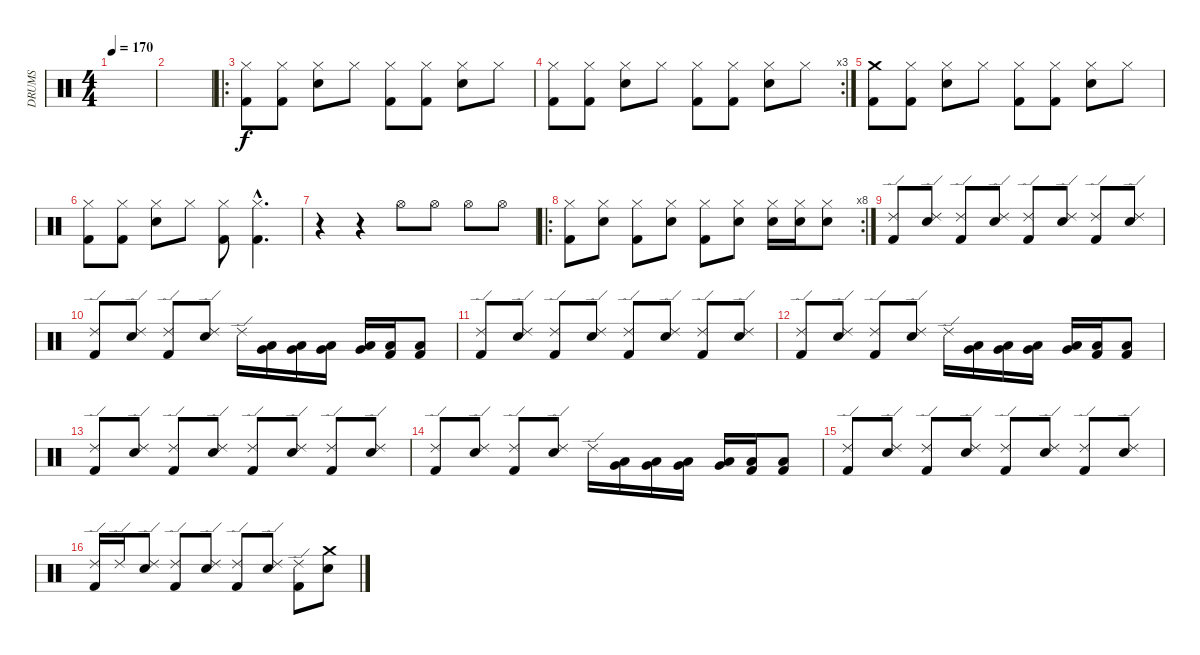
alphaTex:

\track ("DRUMS" "DRUMS") {instrument percussion}
\staff {score}
\articulation defaults
\ts (4 4)
\tempo 170
\clef neutral
\ks c
|
|
\ro
("Kick (hit) 2" "Hi-Hat (closed)").8 ("Kick (hit) 2" "Hi-Hat (closed)").8 ("Snare (hit) 2" "Hi-Hat (closed)").8 "Hi-Hat (closed)".8 ("Kick (hit) 2" "Hi-Hat (closed)").8 ("Kick (hit) 2" "Hi-Hat (closed)").8 ("Snare (hit) 2" "Hi-Hat (closed)").8 "Hi-Hat (closed)".8 |
\rc 3
("Kick (hit) 2" "Hi-Hat (closed)").8 ("Kick (hit) 2" "Hi-Hat (closed)").8 ("Snare (hit) 2" "Hi-Hat (closed)").8 "Hi-Hat (closed)".8 ("Kick (hit) 2" "Hi-Hat (closed)").8 ("Kick (hit) 2" "Hi-Hat (closed)").8 ("Snare (hit) 2" "Hi-Hat (closed)").8 "Hi-Hat (closed)".8 |
("Kick (hit) 2" "Crash medium (hit)").8 ("Kick (hit) 2" "Hi-Hat (closed)").8 ("Snare (hit) 2" "Hi-Hat (closed)").8 "Hi-Hat (closed)".8 ("Kick (hit) 2" "Hi-Hat (closed)").8 ("Kick (hit) 2" "Hi-Hat (closed)").8 ("Snare (hit) 2" "Hi-Hat (closed)").8 "Hi-Hat (closed)".8 |
("Kick (hit) 2" "Hi-Hat (closed)").8 ("Kick (hit) 2" "Hi-Hat (closed)").8 ("Snare (hit) 2" "Hi-Hat (closed)").8 "Hi-Hat (closed)".8 ("Kick (hit) 2" "Hi-Hat (closed)").8 ("Kick (hit) 2"{hac} "Hi-Hat (closed)"{hac}).4{d} |
r.4 r.4 "Hi-Hat (open)".8 "Hi-Hat (open)".8 "Hi-Hat (open)".8 "Hi-Hat (open)".8 |
\ro
\rc 8
("Kick (hit) 2" "Hi-Hat (closed)").8 ("Snare (hit) 2" "Hi-Hat (closed)").8 ("Kick (hit) 2" "Hi-Hat (closed)").8 ("Snare (hit) 2" "Hi-Hat (closed)").8 ("Kick (hit) 2" "Hi-Hat (closed)").8 ("Snare (hit) 2" "Hi-Hat (closed)").8 ("Snare (hit) 2" "Hi-Hat (closed)").16 ("Snare (hit) 2" "Hi-Hat (closed)").16 ("Snare (hit) 2" "Hi-Hat (closed)").8 |
("Kick (hit) 2" "Ride (edge) 2").8 ("Snare (hit) 2" "Ride (edge) 2").8 ("Kick (hit) 2" "Ride (edge) 2").8 ("Snare (hit) 2" "Ride (edge) 2").8 ("Kick (hit) 2" "Ride (edge) 2").8 ("Snare (hit) 2" "Ride (edge) 2").8 ("Kick (hit) 2" "Ride (edge) 2").8 ("Snare (hit) 2" "Ride (edge) 2").8 |
("Kick (hit) 2" "Ride (edge) 2").8 ("Snare (hit) 2" "Ride (edge) 2").8 ("Kick (hit) 2" "Ride (edge) 2").8 ("Snare (hit) 2" "Ride (edge) 2").8 "Ride (edge) 2".16 ("Very Low Tom (hit)" "Low Tom (hit)").16 ("Very Low Tom (hit)" "Low Tom (hit)").16 ("Low Floor Tom (hit)" "Very Low Tom (hit)").16 ("Low Floor Tom (hit)" "Very Low Tom (hit)").16 ("Kick (hit) 2" "Low Floor Tom (hit)").16 ("Kick (hit) 2" "Low Floor Tom (hit)").8 |
("Kick (hit) 2" "Ride (edge) 2").8 ("Snare (hit) 2" "Ride (edge) 2").8 ("Kick (hit) 2" "Ride (edge) 2").8 ("Snare (hit) 2" "Ride (edge) 2").8 ("Kick (hit) 2" "Ride (edge) 2").8 ("Snare (hit) 2" "Ride (edge) 2").8 ("Kick (hit) 2" "Ride (edge) 2").8 ("Snare (hit) 2" "Ride (edge) 2").8 |
("Kick (hit) 2" "Ride (edge) 2").8 ("Snare (hit) 2" "Ride (edge) 2").8 ("Kick (hit) 2" "Ride (edge) 2").8 ("Snare (hit) 2" "Ride (edge) 2").8 "Ride (edge) 2".16 ("Very Low Tom (hit)" "Low Tom (hit)").16 ("Very Low Tom (hit)" "Low Tom (hit)").16 ("Low Floor Tom (hit)" "Very Low Tom (hit)").16 ("Low Floor Tom (hit)" "Very Low Tom (hit)").16 ("Kick (hit) 2" "Low Floor Tom (hit)").16 ("Kick (hit) 2" "Low Floor Tom (hit)").8 |
("Kick (hit) 2" "Ride (edge) 2").8 ("Snare (hit) 2" "Ride (edge) 2").8 ("Kick (hit) 2" "Ride (edge) 2").8 ("Snare (hit) 2" "Ride (edge) 2").8 ("Kick (hit) 2" "Ride (edge) 2").8 ("Snare (hit) 2" "Ride (edge) 2").8 ("Kick (hit) 2" "Ride (edge) 2").8 ("Snare (hit) 2" "Ride (edge) 2").8 |
("Kick (hit) 2" "Ride (edge) 2").8 ("Snare (hit) 2" "Ride (edge) 2").8 ("Kick (hit) 2" "Ride (edge) 2").8 ("Snare (hit) 2" "Ride (edge) 2").8 "Ride (edge) 2".16 ("Very Low Tom (hit)" "Low Tom (hit)").16 ("Very Low Tom (hit)" "Low Tom (hit)").16 ("Low Floor Tom (hit)" "Very Low Tom (hit)").16 ("Low Floor Tom (hit)" "Very Low Tom (hit)").16 ("Kick (hit) 2" "Low Floor Tom (hit)").16 ("Kick (hit) 2" "Low Floor Tom (hit)").8 |
("Kick (hit) 2" "Ride (edge) 2").8 ("Snare (hit) 2" "Ride (edge) 2").8 ("Kick (hit) 2" "Ride (edge) 2").8 ("Snare (hit) 2" "Ride (edge) 2").8 ("Kick (hit) 2" "Ride (edge) 2").8 ("Snare (hit) 2" "Ride (edge) 2").8 ("Kick (hit) 2" "Ride (edge) 2").8 ("Snare (hit) 2" "Ride (edge) 2").8 |
("Kick (hit) 2" "Ride (edge) 2").16 "Ride (edge) 2".16 ("Snare (hit) 2" "Ride (edge) 2").8 ("Kick (hit) 2" "Ride (edge) 2").8 ("Snare (hit) 2" "Ride (edge) 2").8 ("Kick (hit) 2" "Ride (edge) 2").8 ("Snare (hit) 2" "Ride (edge) 2").8 ("Kick (hit) 2" "Ride (edge) 2").8 ("Snare (hit) 2" "Crash medium (hit)").8
